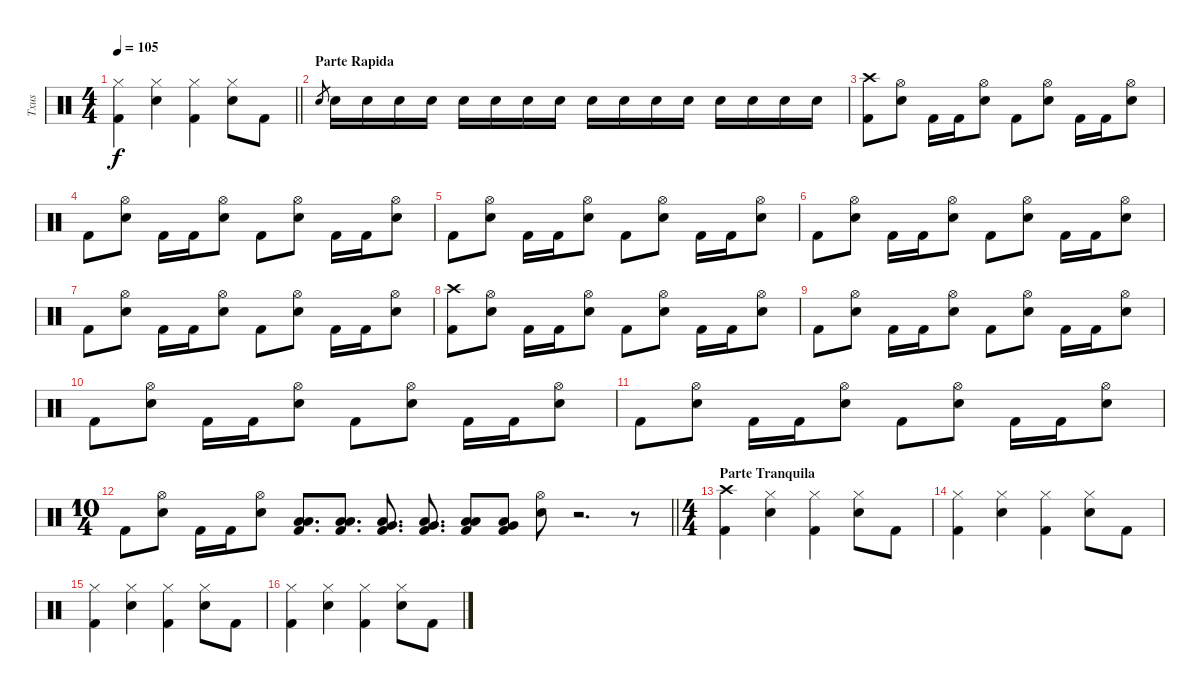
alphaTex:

\track ("Txus" "Txus") {instrument percussion}
\staff {score}
\articulation defaults
\ts (4 4)
\tempo 105
\clef neutral
\barLineRight lightlight
\ks c
("Kick (hit) 2" "Hi-Hat (closed)").4{dy f} ("Electric Snare (hit)" "Hi-Hat (closed)").4 ("Kick (hit) 2" "Hi-Hat (closed)").4 ("Electric Snare (hit)" "Hi-Hat (closed)").8 "Kick (hit) 2".8 |
\section ("" "Parte Rapida")
"Electric Snare (hit)".8{gr} "Electric Snare (hit)".16 "Electric Snare (hit)".16 "Electric Snare (hit)".16 "Electric Snare (hit)".16 "Electric Snare (hit)".16 "Electric Snare (hit)".16 "Electric Snare (hit)".16 "Electric Snare (hit)".16 "Electric Snare (hit)".16 "Electric Snare (hit)".16 "Electric Snare (hit)".16 "Electric Snare (hit)".16 "Electric Snare (hit)".16 "Electric Snare (hit)".16 "Electric Snare (hit)".16 "Electric Snare (hit)".16 |
("Kick (hit) 2" "Crash high (hit)").8 ("Electric Snare (hit)" "Hi-Hat (open)").8 "Kick (hit) 2".16 "Kick (hit) 2".16 ("Electric Snare (hit)" "Hi-Hat (open)").8 "Kick (hit) 2".8 ("Electric Snare (hit)" "Hi-Hat (open)").8 "Kick (hit) 2".16 "Kick (hit) 2".16 ("Electric Snare (hit)" "Hi-Hat (open)").8 |
"Kick (hit) 2".8 ("Electric Snare (hit)" "Hi-Hat (open)").8 "Kick (hit) 2".16 "Kick (hit) 2".16 ("Electric Snare (hit)" "Hi-Hat (open)").8 "Kick (hit) 2".8 ("Electric Snare (hit)" "Hi-Hat (open)").8 "Kick (hit) 2".16 "Kick (hit) 2".16 ("Electric Snare (hit)" "Hi-Hat (open)").8 |
"Kick (hit) 2".8 ("Electric Snare (hit)" "Hi-Hat (open)").8 "Kick (hit) 2".16 "Kick (hit) 2".16 ("Electric Snare (hit)" "Hi-Hat (open)").8 "Kick (hit) 2".8 ("Electric Snare (hit)" "Hi-Hat (open)").8 "Kick (hit) 2".16 "Kick (hit) 2".16 ("Electric Snare (hit)" "Hi-Hat (open)").8 |
"Kick (hit) 2".8 ("Electric Snare (hit)" "Hi-Hat (open)").8 "Kick (hit) 2".16 "Kick (hit) 2".16 ("Electric Snare (hit)" "Hi-Hat (open)").8 "Kick (hit) 2".8 ("Electric Snare (hit)" "Hi-Hat (open)").8 "Kick (hit) 2".16 "Kick (hit) 2".16 ("Electric Snare (hit)" "Hi-Hat (open)").8 |
"Kick (hit) 2".8 ("Electric Snare (hit)" "Hi-Hat (open)").8 "Kick (hit) 2".16 "Kick (hit) 2".16 ("Electric Snare (hit)" "Hi-Hat (open)").8 "Kick (hit) 2".8 ("Electric Snare (hit)" "Hi-Hat (open)").8 "Kick (hit) 2".16 "Kick (hit) 2".16 ("Electric Snare (hit)" "Hi-Hat (open)").8 |
("Kick (hit) 2" "Crash high (hit)").8 ("Electric Snare (hit)" "Hi-Hat (open)").8 "Kick (hit) 2".16 "Kick (hit) 2".16 ("Electric Snare (hit)" "Hi-Hat (open)").8 "Kick (hit) 2".8 ("Electric Snare (hit)" "Hi-Hat (open)").8 "Kick (hit) 2".16 "Kick (hit) 2".16 ("Electric Snare (hit)" "Hi-Hat (open)").8 |
"Kick (hit) 2".8 ("Electric Snare (hit)" "Hi-Hat (open)").8 "Kick (hit) 2".16 "Kick (hit) 2".16 ("Electric Snare (hit)" "Hi-Hat (open)").8 "Kick (hit) 2".8 ("Electric Snare (hit)" "Hi-Hat (open)").8 "Kick (hit) 2".16 "Kick (hit) 2".16 ("Electric Snare (hit)" "Hi-Hat (open)").8 |
"Kick (hit) 2".8 ("Electric Snare (hit)" "Hi-Hat (open)").8 "Kick (hit) 2".16 "Kick (hit) 2".16 ("Electric Snare (hit)" "Hi-Hat (open)").8 "Kick (hit) 2".8 ("Electric Snare (hit)" "Hi-Hat (open)").8 "Kick (hit) 2".16 "Kick (hit) 2".16 ("Electric Snare (hit)" "Hi-Hat (open)").8 |
"Kick (hit) 2".8 ("Electric Snare (hit)" "Hi-Hat (open)").8 "Kick (hit) 2".16 "Kick (hit) 2".16 ("Electric Snare (hit)" "Hi-Hat (open)").8 "Kick (hit) 2".8 ("Electric Snare (hit)" "Hi-Hat (open)").8 "Kick (hit) 2".16 "Kick (hit) 2".16 ("Electric Snare (hit)" "Hi-Hat (open)").8 |
\ts (10 4)
\barLineRight lightlight "Kick (hit) 2".8
("Electric Snare (hit)" "Hi-Hat (open)").8 "Kick (hit) 2".16 "Kick (hit) 2".16 ("Electric Snare (hit)" "Hi-Hat (open)").8 ("Kick (hit) 2" "Low Tom (hit)" "Low Floor Tom (hit)").8{d} ("Kick (hit) 2" "Low Tom (hit)" "Low Floor Tom (hit)").8{d} ("Kick (hit) 2" "Very Low Tom (hit)" "Low Floor Tom (hit)").8{d} ("Kick (hit) 2" "Very Low Tom (hit)" "Low Floor Tom (hit)").8{d} ("Kick (hit) 2" "Low Tom (hit)" "Low Floor Tom (hit)").8 ("Kick (hit) 2" "Very Low Tom (hit)" "Low Floor Tom (hit)").8 ("Electric Snare (hit)" "Hi-Hat (open)").8 r.2{d} r.8 |
\ts (4 4)
\section ("" "Parte Tranquila")
("Kick (hit) 2" "Crash high (hit)").4 ("Electric Snare (hit)" "Hi-Hat (closed)").4 ("Kick (hit) 2" "Hi-Hat (closed)").4 ("Electric Snare (hit)" "Hi-Hat (closed)").8 "Kick (hit) 2".8 |
("Kick (hit) 2" "Hi-Hat (closed)").4 ("Electric Snare (hit)" "Hi-Hat (closed)").4 ("Kick (hit) 2" "Hi-Hat (closed)").4 ("Electric Snare (hit)" "Hi-Hat (closed)").8 "Kick (hit) 2".8 |
("Kick (hit) 2" "Hi-Hat (closed)").4 ("Electric Snare (hit)" "Hi-Hat (closed)").4 ("Kick (hit) 2" "Hi-Hat (closed)").4 ("Electric Snare (hit)" "Hi-Hat (closed)").8 "Kick (hit) 2".8 |
("Kick (hit) 2" "Hi-Hat (closed)").4 ("Electric Snare (hit)" "Hi-Hat (closed)").4 ("Kick (hit) 2" "Hi-Hat (closed)").4 ("Electric Snare (hit)" "Hi-Hat (closed)").8 "Kick (hit) 2".8
